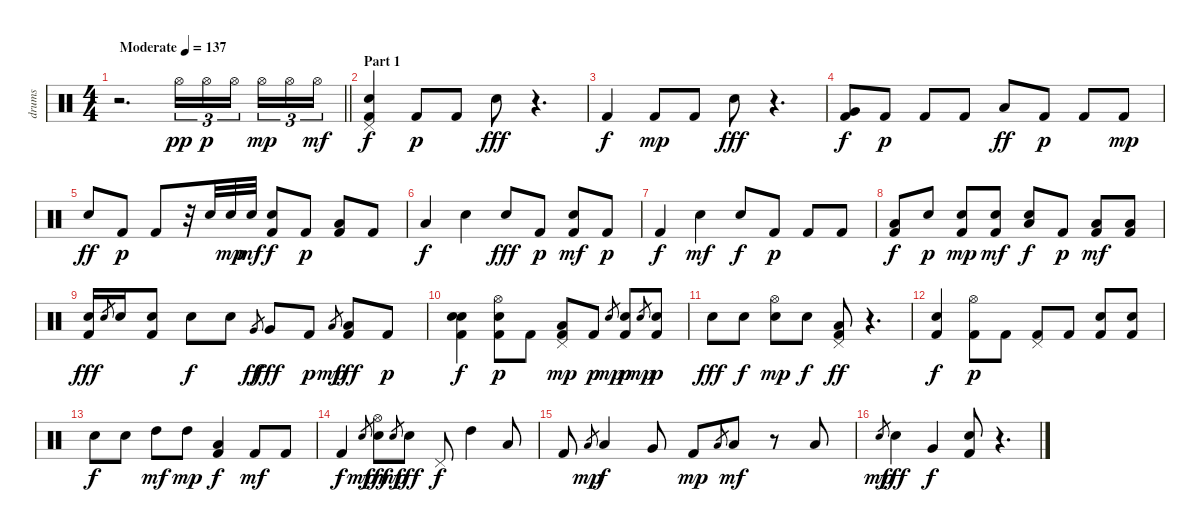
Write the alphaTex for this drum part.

\track ("drums" "drums") {instrument percussion}
\staff {score}
\articulation defaults
\ts (4 4)
\tempo (137 "Moderate")
\clef neutral
\barLineRight lightlight
\ks c
r.2{d dy pp} "Hi-Hat (open)".16{tu (3 2)} "Hi-Hat (open)".16{tu (3 2) dy p} "Hi-Hat (open)".16{tu (3 2) beam splitsecondary} "Hi-Hat (open)".16{tu (3 2) dy mp} "Hi-Hat (open)".16{tu (3 2)} "Hi-Hat (open)".16{tu (3 2) dy mf} |
\section ("" "Part 1")
("Snare (hit) 2" "Pedal Hi-Hat (hit)" "Kick (hit) 2").4{dy f} "Kick (hit) 2".8{dy p} "Kick (hit) 2".8 "Snare (hit) 2".8{dy fff} r.4{d} |
"Kick (hit) 2".4{dy f} "Kick (hit) 2".8{dy mp} "Kick (hit) 2".8 "Snare (hit) 2".8{dy fff} r.4{d} |
("Kick (hit) 2" "Very Low Tom (hit)").8{dy f} "Kick (hit) 2".8{dy p} "Kick (hit) 2".8 "Kick (hit) 2".8 "Low Tom (hit)".8{dy ff} "Kick (hit) 2".8{dy p} "Kick (hit) 2".8 "Kick (hit) 2".8{dy mp} |
"Snare (hit) 2".8{dy ff} "Kick (hit) 2".8{dy p} "Kick (hit) 2".8 r.32 "Snare (hit) 2".32 "Snare (hit) 2".32{dy mp} "Snare (hit) 2".32{dy mf} ("Kick (hit) 2" "Snare (hit) 2").8{dy f} "Kick (hit) 2".8{dy p} ("Kick (hit) 2" "Low Floor Tom (hit)").8 "Kick (hit) 2".8 |
"Low Floor Tom (hit)".4{dy f} "Snare (hit) 2".4 "Electric Snare (hit)".8{dy fff} "Kick (hit) 2".8{dy p} ("Kick (hit) 2" "Electric Snare (hit)").8{dy mf} "Kick (hit) 2".8{dy p} |
"Kick (hit) 2".4{dy f} "Electric Snare (hit)".4{dy mf} "Snare (hit) 2".8{dy f} "Kick (hit) 2".8{dy p} "Kick (hit) 2".8 "Kick (hit) 2".8 |
("Low Floor Tom (hit)" "Kick (hit) 2").8{dy f} "Electric Snare (hit)".8{dy p} ("Kick (hit) 2" "Electric Snare (hit)").8{dy mp} ("Kick (hit) 2" "Electric Snare (hit)").8{dy mf} ("Low Floor Tom (hit)" "Electric Snare (hit)").8{dy f} "Kick (hit) 2".8{dy p} ("Kick (hit) 2" "Low Tom (hit)").8{dy mf} ("Kick (hit) 2" "Low Tom (hit)").8 |
("Kick (hit) 2" "Electric Snare (hit)").16{dy fff} "Electric Snare (hit)".8{gr} "Electric Snare (hit)".16 ("Kick (hit) 2" "Electric Snare (hit)").8 "Electric Snare (hit)".8{dy f} "Electric Snare (hit)".8 "Very Low Tom (hit)".8{gr dy ff} "Very Low Tom (hit)".8{dy fff} "Kick (hit) 2".8{dy p} "Low Floor Tom (hit)".8{gr dy mp} ("Kick (hit) 2" "Low Floor Tom (hit)").8{dy fff} "Kick (hit) 2".8{dy p} |
("Electric Snare (hit)" "Snare (hit) 2" "Kick (hit) 2").4{dy f} ("Hi-Hat (open)" "Kick (hit) 2" "Electric Snare (hit)").8{dy p} "Kick (hit) 2".8 ("Pedal Hi-Hat (hit)" "Low Floor Tom (hit)" "Kick (hit) 2").8{dy mp} "Kick (hit) 2".8{dy p} "Electric Snare (hit)".8{gr dy mp} ("Kick (hit) 2" "Electric Snare (hit)").8{dy p} "Electric Snare (hit)".8{gr dy mp} ("Kick (hit) 2" "Electric Snare (hit)").8{dy p} |
"Snare (hit) 2".8{dy fff} "Electric Snare (hit)".8{dy f} ("Hi-Hat (open)" "Electric Snare (hit)").8{dy mp} "Electric Snare (hit)".8{dy f} ("Pedal Hi-Hat (hit)" "Low Tom (hit)" "Kick (hit) 2").8{dy ff} r.4{d} |
("Snare (hit) 2" "Kick (hit) 2").4{dy f} ("Hi-Hat (open)" "Kick (hit) 2").8{dy p} "Kick (hit) 2".8 ("Pedal Hi-Hat (hit)" "Kick (hit) 2").8 "Kick (hit) 2".8 ("Kick (hit) 2" "Snare (hit) 2").8 ("Kick (hit) 2" "Snare (hit) 2").8 |
"Electric Snare (hit)".8{dy f} "Electric Snare (hit)".8 "High Tom (hit)".8{dy mf} "High Tom (hit)".8{dy mp} ("Low Tom (hit)" "Kick (hit) 2").4{dy f} "Kick (hit) 2".8{dy mf} "Kick (hit) 2".8 |
"Kick (hit) 2".4{dy f} "Electric Snare (hit)".8{gr dy mp} ("Hi-Hat (open)" "Electric Snare (hit)").8{dy fff} "Electric Snare (hit)".8{gr dy mp} "Electric Snare (hit)".8{dy fff} "Pedal Hi-Hat (hit)".8{dy f} "High Tom (hit)".4 "Low Tom (hit)".8 |
"Kick (hit) 2".8 "Low Tom (hit)".8{gr dy mp} "Low Tom (hit)".4{dy f} "Very Low Tom (hit)".8 "Kick (hit) 2".8{dy mp} "Low Tom (hit)".8{gr} "Low Tom (hit)".8{dy mf} r.8 "Low Floor Tom (hit)".8 |
"Electric Snare (hit)".8{gr dy mp} "Electric Snare (hit)".4{dy fff} "Very Low Tom (hit)".4{dy f} ("Snare (hit) 2" "Kick (hit) 2").8 r.4{d}
